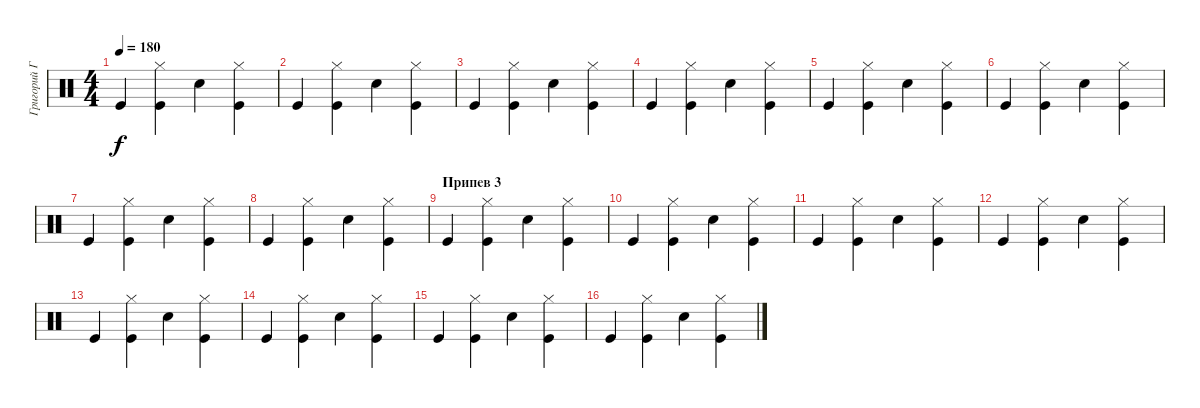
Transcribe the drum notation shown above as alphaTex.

\track ("Григорий Габерман" "Григорий Г") {instrument percussion}
\staff {score}
\articulation defaults
\ts (4 4)
\tempo 180
\clef neutral
\ks c "Kick (hit)".4{dy f}
("Kick (hit)" "Hi-Hat (closed)").4 "Snare (hit) 2".4 ("Kick (hit)" "Hi-Hat (closed)").4 |
"Kick (hit)".4 ("Kick (hit)" "Hi-Hat (closed)").4 "Snare (hit) 2".4 ("Kick (hit)" "Hi-Hat (closed)").4 |
"Kick (hit)".4 ("Kick (hit)" "Hi-Hat (closed)").4 "Snare (hit) 2".4 ("Kick (hit)" "Hi-Hat (closed)").4 |
"Kick (hit)".4 ("Kick (hit)" "Hi-Hat (closed)").4 "Snare (hit) 2".4 ("Kick (hit)" "Hi-Hat (closed)").4 |
"Kick (hit)".4 ("Kick (hit)" "Hi-Hat (closed)").4 "Snare (hit) 2".4 ("Kick (hit)" "Hi-Hat (closed)").4 |
"Kick (hit)".4 ("Kick (hit)" "Hi-Hat (closed)").4 "Snare (hit) 2".4 ("Kick (hit)" "Hi-Hat (closed)").4 |
"Kick (hit)".4 ("Kick (hit)" "Hi-Hat (closed)").4 "Snare (hit) 2".4 ("Kick (hit)" "Hi-Hat (closed)").4 |
"Kick (hit)".4 ("Kick (hit)" "Hi-Hat (closed)").4 "Snare (hit) 2".4 ("Kick (hit)" "Hi-Hat (closed)").4 |
\section ("" "Припев 3")
"Kick (hit)".4 ("Kick (hit)" "Hi-Hat (closed)").4 "Snare (hit) 2".4 ("Kick (hit)" "Hi-Hat (closed)").4 |
"Kick (hit)".4 ("Kick (hit)" "Hi-Hat (closed)").4 "Snare (hit) 2".4 ("Kick (hit)" "Hi-Hat (closed)").4 |
"Kick (hit)".4 ("Kick (hit)" "Hi-Hat (closed)").4 "Snare (hit) 2".4 ("Kick (hit)" "Hi-Hat (closed)").4 |
"Kick (hit)".4 ("Kick (hit)" "Hi-Hat (closed)").4 "Snare (hit) 2".4 ("Kick (hit)" "Hi-Hat (closed)").4 |
"Kick (hit)".4 ("Kick (hit)" "Hi-Hat (closed)").4 "Snare (hit) 2".4 ("Kick (hit)" "Hi-Hat (closed)").4 |
"Kick (hit)".4 ("Kick (hit)" "Hi-Hat (closed)").4 "Snare (hit) 2".4 ("Kick (hit)" "Hi-Hat (closed)").4 |
"Kick (hit)".4 ("Kick (hit)" "Hi-Hat (closed)").4 "Snare (hit) 2".4 ("Kick (hit)" "Hi-Hat (closed)").4 |
"Kick (hit)".4 ("Kick (hit)" "Hi-Hat (closed)").4 "Snare (hit) 2".4 ("Kick (hit)" "Hi-Hat (closed)").4
